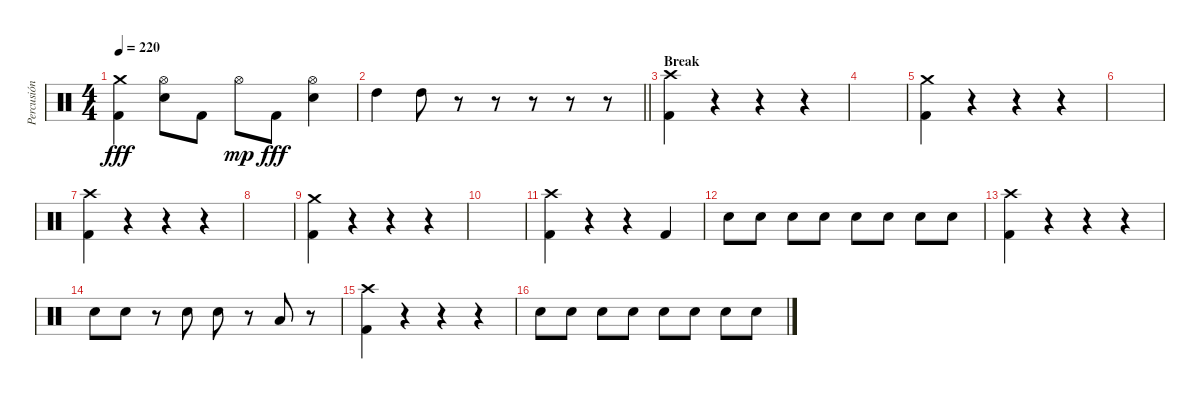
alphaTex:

\track ("Percusión" "Percusión") {instrument percussion}
\staff {score}
\articulation defaults
\ts (4 4)
\tempo 220
\clef neutral
\ks c
("Crash medium (hit)" "Kick (hit) 2").4{dy fff} ("Hi-Hat (open)" "Snare (hit) 2").8 "Kick (hit) 2".8 "Hi-Hat (open)".8{dy mp} "Kick (hit) 2".8{dy fff} ("Hi-Hat (open)" "Snare (hit) 2").4 |
\barLineRight lightlight "High Tom (hit)".4 "High Tom (hit)".8
r.8 r.8 r.8 r.8 r.8 |
\section ("" "Break")
("Crash high (hit)" "Kick (hit) 2").4 r.4 r.4 r.4 |
|
("Crash medium (hit)" "Kick (hit) 2").4 r.4 r.4 r.4 |
|
("Crash high (hit)" "Kick (hit) 2").4 r.4 r.4 r.4 |
|
("Crash medium (hit)" "Kick (hit) 2").4 r.4 r.4 r.4 |
|
("Crash high (hit)" "Kick (hit) 2").4 r.4 r.4 "Kick (hit) 2".4 |
"Snare (hit) 2".8 "Snare (hit) 2".8 "Snare (hit) 2".8 "Snare (hit) 2".8 "Snare (hit) 2".8 "Snare (hit) 2".8 "Snare (hit) 2".8 "Snare (hit) 2".8 |
("Crash high (hit)" "Kick (hit) 2").4 r.4 r.4 r.4 |
"Snare (hit) 2".8 "Snare (hit) 2".8 r.8 "Snare (hit) 2".8 "Snare (hit) 2".8 r.8 "Low Tom (hit)".8 r.8 |
("Crash high (hit)" "Kick (hit) 2").4 r.4 r.4 r.4 |
"Snare (hit) 2".8 "Snare (hit) 2".8 "Snare (hit) 2".8 "Snare (hit) 2".8 "Snare (hit) 2".8 "Snare (hit) 2".8 "Snare (hit) 2".8 "Snare (hit) 2".8
